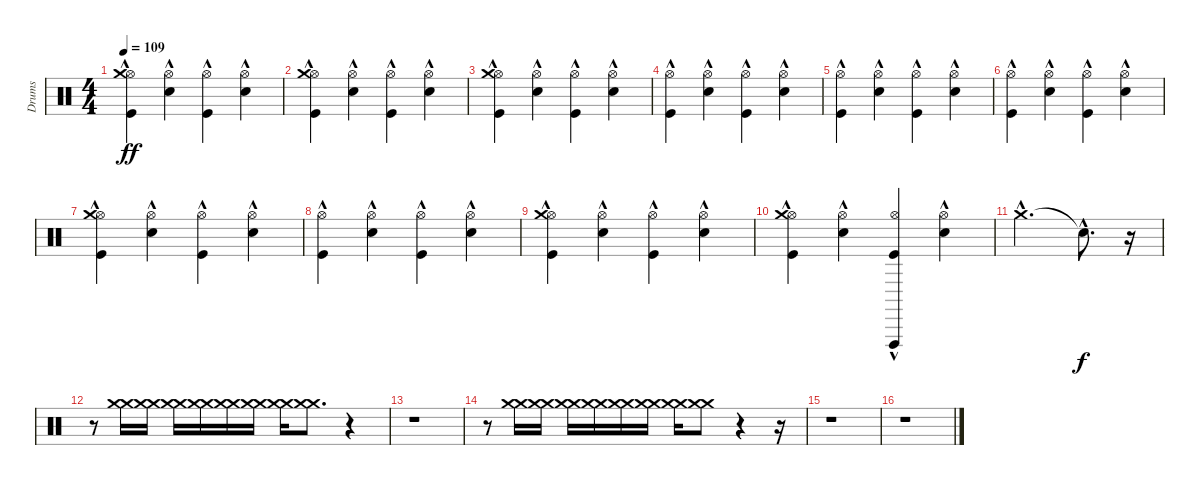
\track ("Drums" "Drums") {instrument percussion}
\staff {score}
\articulation defaults
\ts (4 4)
\tempo 109
\clef neutral
\ks c
("Kick (hit)"{hac} "Hi-Hat (open)"{hac} "Crash medium (hit)"{hac}).4{dy ff} ("Electric Snare (hit)"{hac} "Hi-Hat (open)"{hac}).4 ("Kick (hit)"{hac} "Hi-Hat (open)"{hac}).4 ("Electric Snare (hit)"{hac} "Hi-Hat (open)"{hac}).4 |
("Kick (hit)"{hac} "Hi-Hat (open)"{hac} "Crash medium (hit)"{hac}).4 ("Electric Snare (hit)"{hac} "Hi-Hat (open)"{hac}).4 ("Kick (hit)"{hac} "Hi-Hat (open)"{hac}).4 ("Electric Snare (hit)"{hac} "Hi-Hat (open)"{hac}).4 |
("Kick (hit)"{hac} "Hi-Hat (open)"{hac} "Crash medium (hit)"{hac}).4 ("Electric Snare (hit)"{hac} "Hi-Hat (open)"{hac}).4 ("Kick (hit)"{hac} "Hi-Hat (open)"{hac}).4 ("Electric Snare (hit)"{hac} "Hi-Hat (open)"{hac}).4 |
("Kick (hit)"{hac} "Hi-Hat (open)"{hac}).4 ("Electric Snare (hit)"{hac} "Hi-Hat (open)"{hac}).4 ("Kick (hit)"{hac} "Hi-Hat (open)"{hac}).4 ("Electric Snare (hit)"{hac} "Hi-Hat (open)"{hac}).4 |
("Kick (hit)"{hac} "Hi-Hat (open)"{hac}).4 ("Electric Snare (hit)"{hac} "Hi-Hat (open)"{hac}).4 ("Kick (hit)"{hac} "Hi-Hat (open)"{hac}).4 ("Electric Snare (hit)"{hac} "Hi-Hat (open)"{hac}).4 |
("Kick (hit)"{hac} "Hi-Hat (open)"{hac}).4 ("Electric Snare (hit)"{hac} "Hi-Hat (open)"{hac}).4 ("Kick (hit)"{hac} "Hi-Hat (open)"{hac}).4 ("Electric Snare (hit)"{hac} "Hi-Hat (open)"{hac}).4 |
("Kick (hit)"{hac} "Hi-Hat (open)"{hac} "Crash medium (hit)"{hac}).4 ("Electric Snare (hit)"{hac} "Hi-Hat (open)"{hac}).4 ("Kick (hit)"{hac} "Hi-Hat (open)"{hac}).4 ("Electric Snare (hit)"{hac} "Hi-Hat (open)"{hac}).4 |
("Kick (hit)"{hac} "Hi-Hat (open)"{hac}).4 ("Electric Snare (hit)"{hac} "Hi-Hat (open)"{hac}).4 ("Kick (hit)"{hac} "Hi-Hat (open)"{hac}).4 ("Electric Snare (hit)"{hac} "Hi-Hat (open)"{hac}).4 |
("Kick (hit)"{hac} "Hi-Hat (open)"{hac} "Crash medium (hit)"{hac}).4 ("Electric Snare (hit)"{hac} "Hi-Hat (open)"{hac}).4 ("Kick (hit)"{hac} "Hi-Hat (open)"{hac}).4 ("Electric Snare (hit)"{hac} "Hi-Hat (open)"{hac}).4 |
("Kick (hit)"{hac} "Hi-Hat (open)"{hac} "Crash medium (hit)"{hac}).4 ("Electric Snare (hit)"{hac} "Hi-Hat (open)"{hac}).4 ("Kick (hit)"{hac} "Hi-Hat (open)"{hac} "Vibraslap (hit)"{hac}).4 ("Electric Snare (hit)"{hac} "Hi-Hat (open)"{hac}).4 |
"Crash medium (hit)"{hac}.2{d} "Snare (hit)"{hac t}.8{d dy f} r.16 |
r.8 ("Crash medium (hit)" "Crash medium (hit)").16{volume 2} ("Crash medium (hit)" "Crash medium (hit)").16{volume 7} ("Crash medium (hit)" "Crash medium (hit)").16{volume 5} ("Crash medium (hit)" "Crash medium (hit)").16{volume 7} ("Crash medium (hit)" "Crash medium (hit)").16{volume 9} ("Crash medium (hit)" "Crash medium (hit)").16{volume 11} ("Crash medium (hit)" "Crash medium (hit)").16{volume 13} ("Crash medium (hit)" "Crash medium (hit)").8{d volume 15} r.4 |
r.1 |
r.8 ("Crash medium (hit)" "Crash medium (hit)").16{volume 2} ("Crash medium (hit)" "Crash medium (hit)").16{volume 7} ("Crash medium (hit)" "Crash medium (hit)").16{volume 5} ("Crash medium (hit)" "Crash medium (hit)").16{volume 7} ("Crash medium (hit)" "Crash medium (hit)").16{volume 9} ("Crash medium (hit)" "Crash medium (hit)").16{volume 11} ("Crash medium (hit)" "Crash medium (hit)").16{volume 13} ("Crash medium (hit)" "Crash medium (hit)").8{volume 15} r.4 r.16 |
r.1 |
r.1
